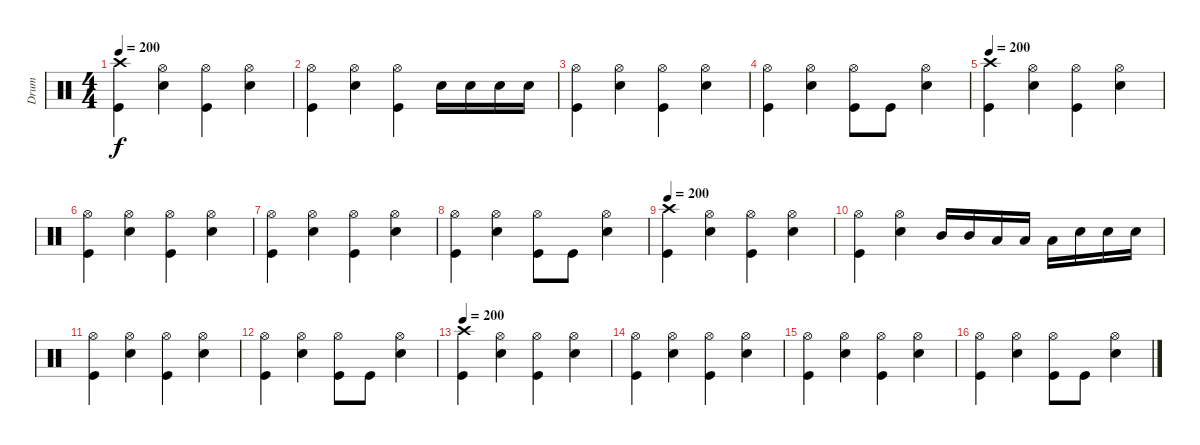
\track ("Drum" "Drum") {instrument percussion}
\staff {score}
\articulation defaults
\ts (4 4)
\tempo 200
\clef neutral
\ks c
("Crash high (hit)" "Kick (hit)").4{dy f} ("Hi-Hat (open)" "Electric Snare (hit)").4 ("Hi-Hat (open)" "Kick (hit)").4 ("Hi-Hat (open)" "Electric Snare (hit)").4 |
("Hi-Hat (open)" "Kick (hit)").4 ("Hi-Hat (open)" "Electric Snare (hit)").4 ("Hi-Hat (open)" "Kick (hit)").4 "Electric Snare (hit)".16 "Electric Snare (hit)".16 "Electric Snare (hit)".16 "Electric Snare (hit)".16 |
("Hi-Hat (open)" "Kick (hit)").4 ("Hi-Hat (open)" "Electric Snare (hit)").4 ("Hi-Hat (open)" "Kick (hit)").4 ("Hi-Hat (open)" "Electric Snare (hit)").4 |
("Hi-Hat (open)" "Kick (hit)").4 ("Hi-Hat (open)" "Electric Snare (hit)").4 ("Hi-Hat (open)" "Kick (hit)").8 "Kick (hit)".8 ("Hi-Hat (open)" "Electric Snare (hit)").4 |
\tempo 200
("Crash high (hit)" "Kick (hit)").4 ("Hi-Hat (open)" "Electric Snare (hit)").4 ("Hi-Hat (open)" "Kick (hit)").4 ("Hi-Hat (open)" "Electric Snare (hit)").4 |
("Hi-Hat (open)" "Kick (hit)").4 ("Hi-Hat (open)" "Electric Snare (hit)").4 ("Hi-Hat (open)" "Kick (hit)").4 ("Hi-Hat (open)" "Electric Snare (hit)").4 |
("Hi-Hat (open)" "Kick (hit)").4 ("Hi-Hat (open)" "Electric Snare (hit)").4 ("Hi-Hat (open)" "Kick (hit)").4 ("Hi-Hat (open)" "Electric Snare (hit)").4 |
("Hi-Hat (open)" "Kick (hit)").4 ("Hi-Hat (open)" "Electric Snare (hit)").4 ("Hi-Hat (open)" "Kick (hit)").8 "Kick (hit)".8 ("Hi-Hat (open)" "Electric Snare (hit)").4 |
\tempo 200
("Crash high (hit)" "Kick (hit)").4 ("Hi-Hat (open)" "Electric Snare (hit)").4 ("Hi-Hat (open)" "Kick (hit)").4 ("Hi-Hat (open)" "Electric Snare (hit)").4 |
("Hi-Hat (open)" "Kick (hit)").4 ("Hi-Hat (open)" "Electric Snare (hit)").4 "Mid Tom (hit)".16 "Mid Tom (hit)".16 "Low Tom (hit)".16 "Low Tom (hit)".16 "Low Tom (hit)".16 "Electric Snare (hit)".16 "Electric Snare (hit)".16 "Electric Snare (hit)".16 |
("Hi-Hat (open)" "Kick (hit)").4 ("Hi-Hat (open)" "Electric Snare (hit)").4 ("Hi-Hat (open)" "Kick (hit)").4 ("Hi-Hat (open)" "Electric Snare (hit)").4 |
("Hi-Hat (open)" "Kick (hit)").4 ("Hi-Hat (open)" "Electric Snare (hit)").4 ("Hi-Hat (open)" "Kick (hit)").8 "Kick (hit)".8 ("Hi-Hat (open)" "Electric Snare (hit)").4 |
\tempo 200
("Crash high (hit)" "Kick (hit)").4 ("Hi-Hat (open)" "Electric Snare (hit)").4 ("Hi-Hat (open)" "Kick (hit)").4 ("Hi-Hat (open)" "Electric Snare (hit)").4 |
("Hi-Hat (open)" "Kick (hit)").4 ("Hi-Hat (open)" "Electric Snare (hit)").4 ("Hi-Hat (open)" "Kick (hit)").4 ("Hi-Hat (open)" "Electric Snare (hit)").4 |
("Hi-Hat (open)" "Kick (hit)").4 ("Hi-Hat (open)" "Electric Snare (hit)").4 ("Hi-Hat (open)" "Kick (hit)").4 ("Hi-Hat (open)" "Electric Snare (hit)").4 |
("Hi-Hat (open)" "Kick (hit)").4 ("Hi-Hat (open)" "Electric Snare (hit)").4 ("Hi-Hat (open)" "Kick (hit)").8 "Kick (hit)".8 ("Hi-Hat (open)" "Electric Snare (hit)").4
